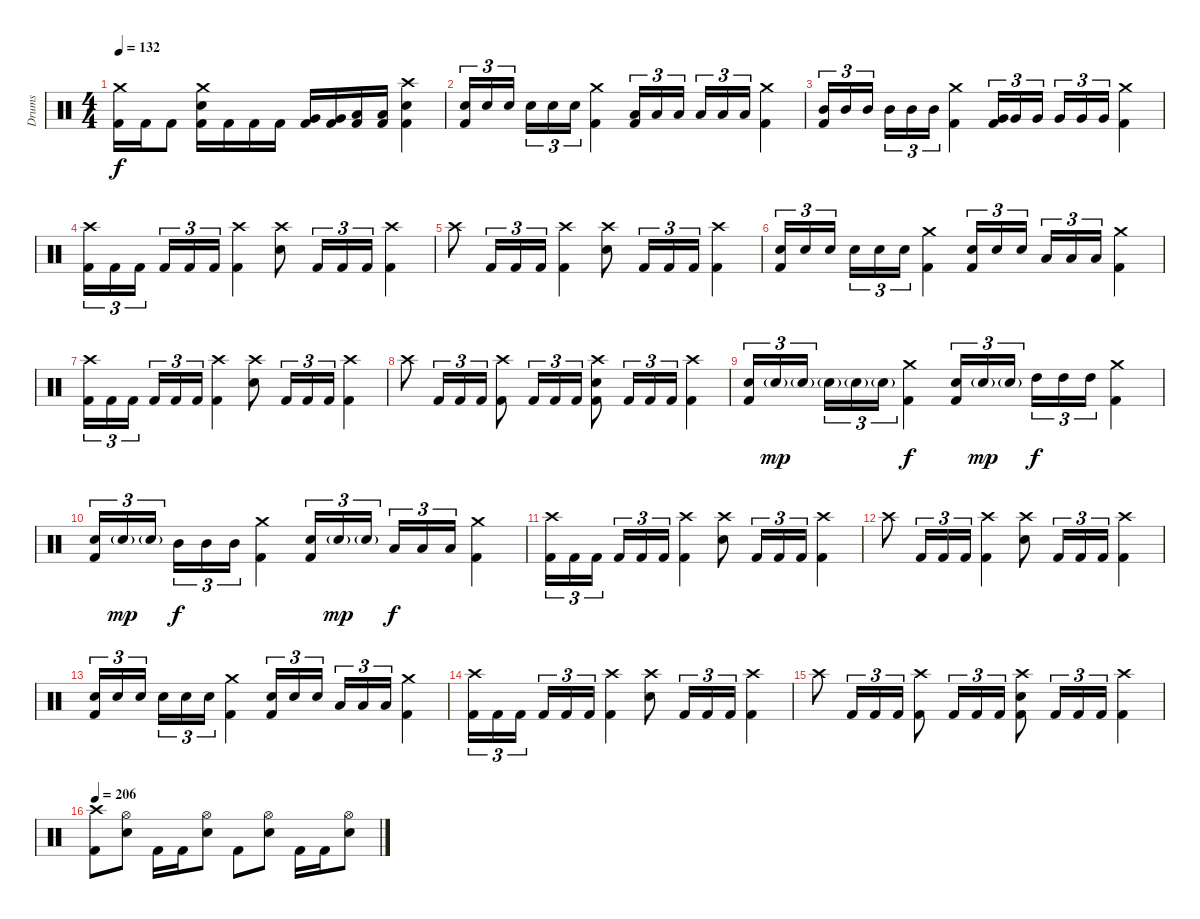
\track ("Drums" "Drums") {instrument percussion}
\staff {score}
\articulation defaults
\ts (4 4)
\tempo 132
\clef neutral
\ks c
("Crash medium (hit)" "Kick (hit) 2").16{dy f} "Kick (hit) 2".16 "Kick (hit) 2".8 ("Crash medium (hit)" "Electric Snare (hit)" "Kick (hit) 2").16 "Kick (hit) 2".16 "Kick (hit) 2".16 "Kick (hit) 2".16 ("Very Low Tom (hit)" "Kick (hit) 2").16 ("Very Low Tom (hit)" "Kick (hit) 2").16 ("Low Floor Tom (hit)" "Kick (hit) 2").16 ("Low Floor Tom (hit)" "Kick (hit) 2").16 ("Crash high (hit)" "Electric Snare (hit)" "Kick (hit) 2").4 |
("Electric Snare (hit)" "Kick (hit) 2").16{tu (3 2)} "Electric Snare (hit)".16{tu (3 2)} "Electric Snare (hit)".16{tu (3 2) beam splitsecondary} "Electric Snare (hit)".16{tu (3 2)} "Electric Snare (hit)".16{tu (3 2)} "Electric Snare (hit)".16{tu (3 2)} ("Crash medium (hit)" "Kick (hit) 2").4 ("Low Tom (hit)" "Kick (hit) 2").16{tu (3 2)} "Low Tom (hit)".16{tu (3 2)} "Low Tom (hit)".16{tu (3 2) beam splitsecondary} "Low Tom (hit)".16{tu (3 2)} "Low Tom (hit)".16{tu (3 2)} "Low Tom (hit)".16{tu (3 2)} ("Crash medium (hit)" "Kick (hit) 2").4 |
("Mid Tom (hit)" "Kick (hit) 2").16{tu (3 2)} "Mid Tom (hit)".16{tu (3 2)} "Mid Tom (hit)".16{tu (3 2) beam splitsecondary} "Mid Tom (hit)".16{tu (3 2)} "Mid Tom (hit)".16{tu (3 2)} "Mid Tom (hit)".16{tu (3 2)} ("Crash medium (hit)" "Kick (hit) 2").4 ("Very Low Tom (hit)" "Kick (hit) 2").16{tu (3 2)} "Very Low Tom (hit)".16{tu (3 2)} "Very Low Tom (hit)".16{tu (3 2) beam splitsecondary} "Very Low Tom (hit)".16{tu (3 2)} "Very Low Tom (hit)".16{tu (3 2)} "Very Low Tom (hit)".16{tu (3 2)} ("Crash medium (hit)" "Kick (hit) 2").4 |
("Crash high (hit)" "Kick (hit) 2").16{tu (3 2)} "Kick (hit) 2".16{tu (3 2)} "Kick (hit) 2".16{tu (3 2) beam splitsecondary} "Kick (hit) 2".16{tu (3 2)} "Kick (hit) 2".16{tu (3 2)} "Kick (hit) 2".16{tu (3 2)} ("Crash high (hit)" "Kick (hit) 2").4 ("Crash high (hit)" "Electric Snare (hit)").8 "Kick (hit) 2".16{tu (3 2)} "Kick (hit) 2".16{tu (3 2)} "Kick (hit) 2".16{tu (3 2)} ("Crash high (hit)" "Kick (hit) 2").4 |
"Crash high (hit)".8 "Kick (hit) 2".16{tu (3 2)} "Kick (hit) 2".16{tu (3 2)} "Kick (hit) 2".16{tu (3 2)} ("Crash high (hit)" "Kick (hit) 2").4 ("Crash high (hit)" "Electric Snare (hit)").8 "Kick (hit) 2".16{tu (3 2)} "Kick (hit) 2".16{tu (3 2)} "Kick (hit) 2".16{tu (3 2)} ("Crash high (hit)" "Kick (hit) 2").4 |
("Electric Snare (hit)" "Kick (hit) 2").16{tu (3 2)} "Electric Snare (hit)".16{tu (3 2)} "Electric Snare (hit)".16{tu (3 2) beam splitsecondary} "Electric Snare (hit)".16{tu (3 2)} "Electric Snare (hit)".16{tu (3 2)} "Electric Snare (hit)".16{tu (3 2)} ("Crash medium (hit)" "Kick (hit) 2").4 ("Electric Snare (hit)" "Kick (hit) 2").16{tu (3 2)} "Electric Snare (hit)".16{tu (3 2)} "Electric Snare (hit)".16{tu (3 2) beam splitsecondary} "Low Tom (hit)".16{tu (3 2)} "Low Tom (hit)".16{tu (3 2)} "Low Tom (hit)".16{tu (3 2)} ("Crash medium (hit)" "Kick (hit) 2").4 |
("Crash high (hit)" "Kick (hit) 2").16{tu (3 2)} "Kick (hit) 2".16{tu (3 2)} "Kick (hit) 2".16{tu (3 2) beam splitsecondary} "Kick (hit) 2".16{tu (3 2)} "Kick (hit) 2".16{tu (3 2)} "Kick (hit) 2".16{tu (3 2)} ("Crash high (hit)" "Kick (hit) 2").4 ("Crash high (hit)" "Electric Snare (hit)").8 "Kick (hit) 2".16{tu (3 2)} "Kick (hit) 2".16{tu (3 2)} "Kick (hit) 2".16{tu (3 2)} ("Crash high (hit)" "Kick (hit) 2").4 |
"Crash high (hit)".8 "Kick (hit) 2".16{tu (3 2)} "Kick (hit) 2".16{tu (3 2)} "Kick (hit) 2".16{tu (3 2)} ("Crash high (hit)" "Kick (hit) 2").8 "Kick (hit) 2".16{tu (3 2)} "Kick (hit) 2".16{tu (3 2)} "Kick (hit) 2".16{tu (3 2)} ("Crash high (hit)" "Electric Snare (hit)" "Kick (hit) 2").8 "Kick (hit) 2".16{tu (3 2)} "Kick (hit) 2".16{tu (3 2)} "Kick (hit) 2".16{tu (3 2)} ("Crash high (hit)" "Kick (hit) 2").4 |
("Electric Snare (hit)" "Kick (hit) 2").16{tu (3 2)} "Electric Snare (hit)"{g}.16{tu (3 2) dy mp} "Electric Snare (hit)"{g}.16{tu (3 2) beam splitsecondary} "Electric Snare (hit)"{g}.16{tu (3 2)} "Electric Snare (hit)"{g}.16{tu (3 2)} "Electric Snare (hit)"{g}.16{tu (3 2)} ("Crash medium (hit)" "Kick (hit) 2").4{dy f} ("Electric Snare (hit)" "Kick (hit) 2").16{tu (3 2)} "Electric Snare (hit)"{g}.16{tu (3 2) dy mp} "Electric Snare (hit)"{g}.16{tu (3 2) beam splitsecondary} "High Tom (hit)".16{tu (3 2) dy f} "High Tom (hit)".16{tu (3 2)} "High Tom (hit)".16{tu (3 2)} ("Crash medium (hit)" "Kick (hit) 2").4 |
("Electric Snare (hit)" "Kick (hit) 2").16{tu (3 2)} "Electric Snare (hit)"{g}.16{tu (3 2) dy mp} "Electric Snare (hit)"{g}.16{tu (3 2) beam splitsecondary} "Mid Tom (hit)".16{tu (3 2) dy f} "Mid Tom (hit)".16{tu (3 2)} "Mid Tom (hit)".16{tu (3 2)} ("Crash medium (hit)" "Kick (hit) 2").4 ("Electric Snare (hit)" "Kick (hit) 2").16{tu (3 2)} "Electric Snare (hit)"{g}.16{tu (3 2) dy mp} "Electric Snare (hit)"{g}.16{tu (3 2) beam splitsecondary} "Low Tom (hit)".16{tu (3 2) dy f} "Low Tom (hit)".16{tu (3 2)} "Low Tom (hit)".16{tu (3 2)} ("Crash medium (hit)" "Kick (hit) 2").4 |
("Crash high (hit)" "Kick (hit) 2").16{tu (3 2)} "Kick (hit) 2".16{tu (3 2)} "Kick (hit) 2".16{tu (3 2) beam splitsecondary} "Kick (hit) 2".16{tu (3 2)} "Kick (hit) 2".16{tu (3 2)} "Kick (hit) 2".16{tu (3 2)} ("Crash high (hit)" "Kick (hit) 2").4 ("Crash high (hit)" "Electric Snare (hit)").8 "Kick (hit) 2".16{tu (3 2)} "Kick (hit) 2".16{tu (3 2)} "Kick (hit) 2".16{tu (3 2)} ("Crash high (hit)" "Kick (hit) 2").4 |
"Crash high (hit)".8 "Kick (hit) 2".16{tu (3 2)} "Kick (hit) 2".16{tu (3 2)} "Kick (hit) 2".16{tu (3 2)} ("Crash high (hit)" "Kick (hit) 2").4 ("Crash high (hit)" "Electric Snare (hit)").8 "Kick (hit) 2".16{tu (3 2)} "Kick (hit) 2".16{tu (3 2)} "Kick (hit) 2".16{tu (3 2)} ("Crash high (hit)" "Kick (hit) 2").4 |
("Electric Snare (hit)" "Kick (hit) 2").16{tu (3 2)} "Electric Snare (hit)".16{tu (3 2)} "Electric Snare (hit)".16{tu (3 2) beam splitsecondary} "Electric Snare (hit)".16{tu (3 2)} "Electric Snare (hit)".16{tu (3 2)} "Electric Snare (hit)".16{tu (3 2)} ("Crash medium (hit)" "Kick (hit) 2").4 ("Electric Snare (hit)" "Kick (hit) 2").16{tu (3 2)} "Electric Snare (hit)".16{tu (3 2)} "Electric Snare (hit)".16{tu (3 2) beam splitsecondary} "Low Tom (hit)".16{tu (3 2)} "Low Tom (hit)".16{tu (3 2)} "Low Tom (hit)".16{tu (3 2)} ("Crash medium (hit)" "Kick (hit) 2").4 |
("Crash high (hit)" "Kick (hit) 2").16{tu (3 2)} "Kick (hit) 2".16{tu (3 2)} "Kick (hit) 2".16{tu (3 2) beam splitsecondary} "Kick (hit) 2".16{tu (3 2)} "Kick (hit) 2".16{tu (3 2)} "Kick (hit) 2".16{tu (3 2)} ("Crash high (hit)" "Kick (hit) 2").4 ("Crash high (hit)" "Electric Snare (hit)").8 "Kick (hit) 2".16{tu (3 2)} "Kick (hit) 2".16{tu (3 2)} "Kick (hit) 2".16{tu (3 2)} ("Crash high (hit)" "Kick (hit) 2").4 |
"Crash high (hit)".8 "Kick (hit) 2".16{tu (3 2)} "Kick (hit) 2".16{tu (3 2)} "Kick (hit) 2".16{tu (3 2)} ("Crash high (hit)" "Kick (hit) 2").8 "Kick (hit) 2".16{tu (3 2)} "Kick (hit) 2".16{tu (3 2)} "Kick (hit) 2".16{tu (3 2)} ("Crash high (hit)" "Electric Snare (hit)" "Kick (hit) 2").8 "Kick (hit) 2".16{tu (3 2)} "Kick (hit) 2".16{tu (3 2)} "Kick (hit) 2".16{tu (3 2)} ("Crash high (hit)" "Kick (hit) 2").4 |
\tempo 206
("Crash high (hit)" "Kick (hit) 2").8 ("Hi-Hat (open)" "Electric Snare (hit)").8 "Kick (hit) 2".16 "Kick (hit) 2".16 ("Hi-Hat (open)" "Electric Snare (hit)").8 "Kick (hit) 2".8 ("Hi-Hat (open)" "Electric Snare (hit)").8 "Kick (hit) 2".16 "Kick (hit) 2".16 ("Hi-Hat (open)" "Electric Snare (hit)").8
